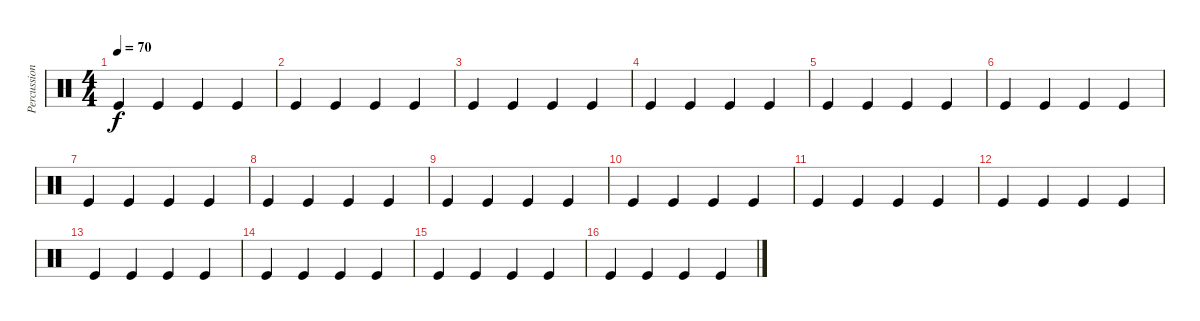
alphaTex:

\track ("Percussion" "Percussion") {instrument percussion}
\staff {score}
\articulation defaults
\ts (4 4)
\tempo 70
\clef neutral
\ks c "Kick (hit)".4{dy f} "Kick (hit)".4 "Kick (hit)".4 "Kick (hit)".4
|
"Kick (hit)".4 "Kick (hit)".4 "Kick (hit)".4 "Kick (hit)".4 |
"Kick (hit)".4 "Kick (hit)".4 "Kick (hit)".4 "Kick (hit)".4 |
"Kick (hit)".4 "Kick (hit)".4 "Kick (hit)".4 "Kick (hit)".4 |
"Kick (hit)".4 "Kick (hit)".4 "Kick (hit)".4 "Kick (hit)".4 |
"Kick (hit)".4 "Kick (hit)".4 "Kick (hit)".4 "Kick (hit)".4 |
"Kick (hit)".4 "Kick (hit)".4 "Kick (hit)".4 "Kick (hit)".4 |
"Kick (hit)".4 "Kick (hit)".4 "Kick (hit)".4 "Kick (hit)".4 |
"Kick (hit)".4 "Kick (hit)".4 "Kick (hit)".4 "Kick (hit)".4 |
"Kick (hit)".4 "Kick (hit)".4 "Kick (hit)".4 "Kick (hit)".4 |
"Kick (hit)".4 "Kick (hit)".4 "Kick (hit)".4 "Kick (hit)".4 |
"Kick (hit)".4 "Kick (hit)".4 "Kick (hit)".4 "Kick (hit)".4 |
"Kick (hit)".4 "Kick (hit)".4 "Kick (hit)".4 "Kick (hit)".4 |
"Kick (hit)".4 "Kick (hit)".4 "Kick (hit)".4 "Kick (hit)".4 |
"Kick (hit)".4 "Kick (hit)".4 "Kick (hit)".4 "Kick (hit)".4 |
"Kick (hit)".4 "Kick (hit)".4 "Kick (hit)".4 "Kick (hit)".4
